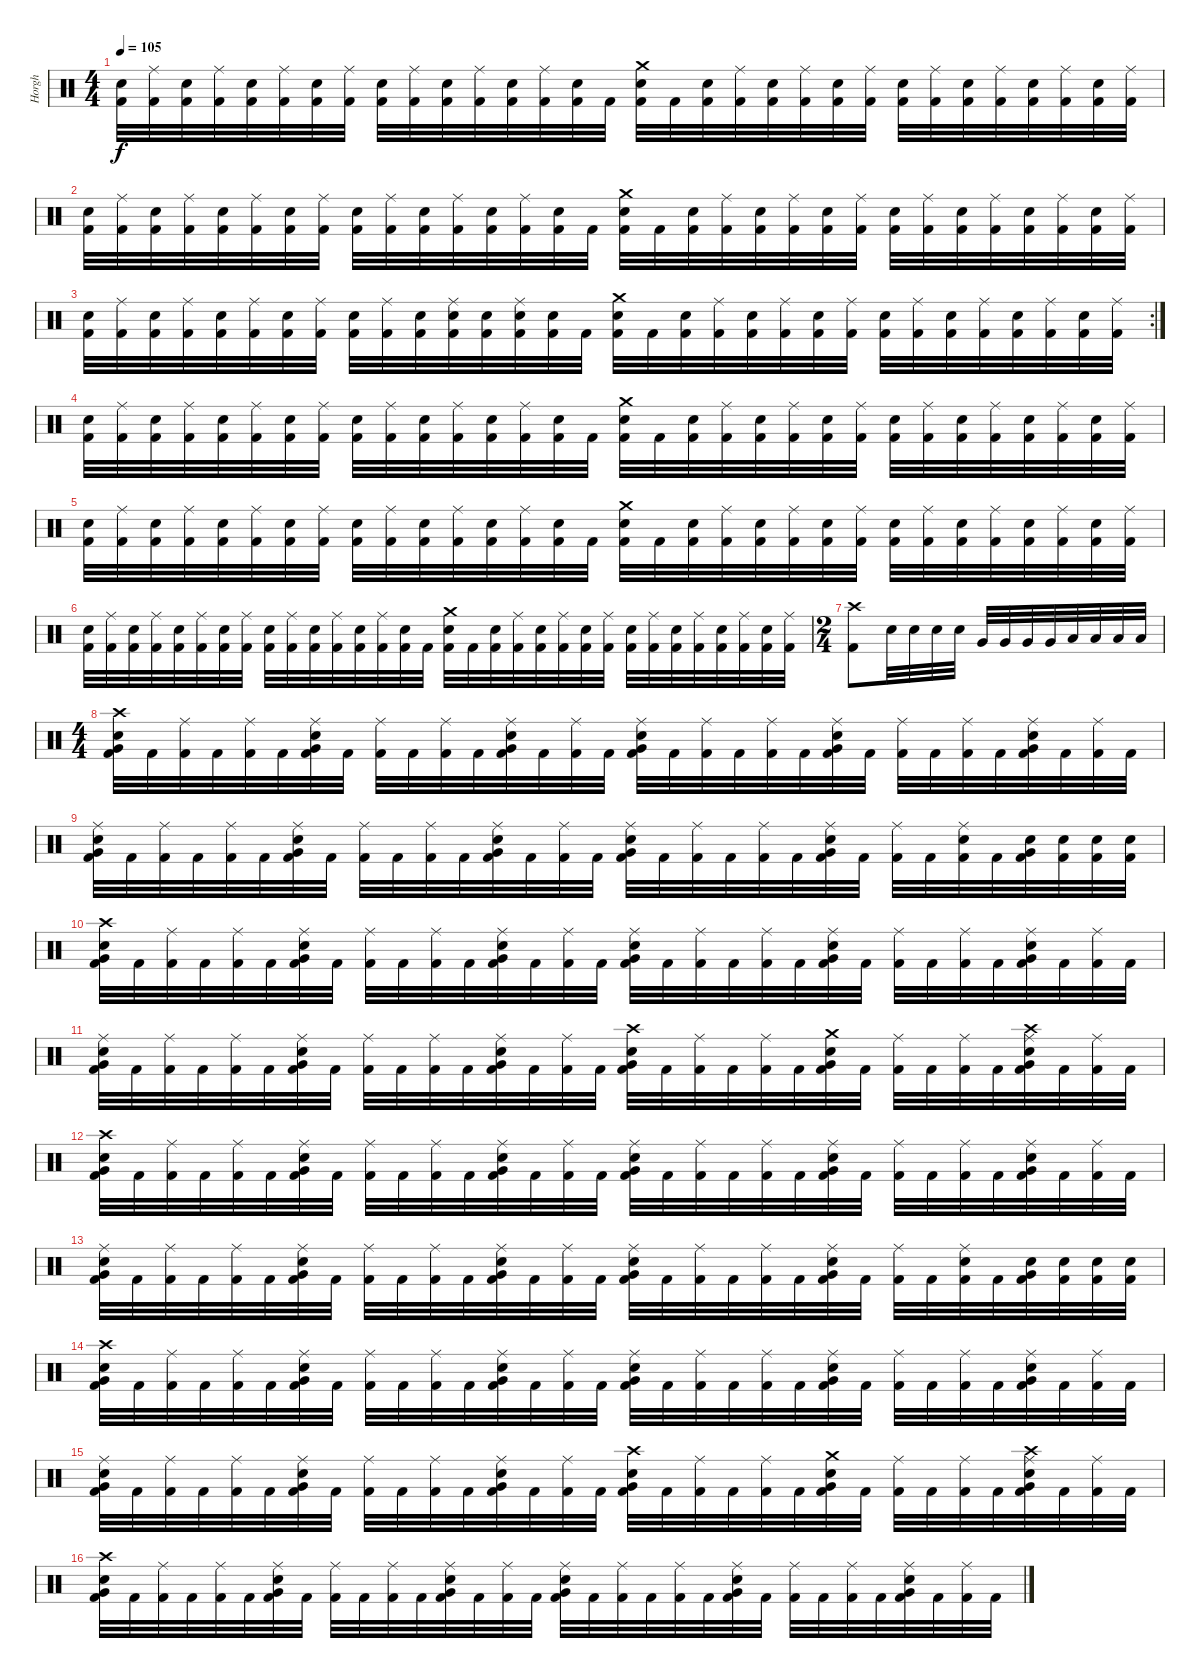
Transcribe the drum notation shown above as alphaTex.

\track ("Horgh" "Horgh") {instrument percussion}
\staff {score}
\articulation defaults
\ts (4 4)
\tempo 105
\clef neutral
\ks c
("Electric Snare (hit)" "Kick (hit) 2").32{dy f} ("Ride (middle)" "Kick (hit) 2").32 ("Electric Snare (hit)" "Kick (hit) 2").32 ("Ride (middle)" "Kick (hit) 2").32 ("Electric Snare (hit)" "Kick (hit) 2").32 ("Ride (middle)" "Kick (hit) 2").32 ("Electric Snare (hit)" "Kick (hit) 2").32 ("Ride (middle)" "Kick (hit) 2").32 ("Electric Snare (hit)" "Kick (hit) 2").32 ("Ride (middle)" "Kick (hit) 2").32 ("Electric Snare (hit)" "Kick (hit) 2").32 ("Ride (middle)" "Kick (hit) 2").32 ("Electric Snare (hit)" "Kick (hit) 2").32 ("Ride (middle)" "Kick (hit) 2").32 ("Electric Snare (hit)" "Kick (hit) 2").32 "Kick (hit) 2".32 ("Crash medium (hit)" "Electric Snare (hit)" "Kick (hit) 2").32 "Kick (hit) 2".32 ("Electric Snare (hit)" "Kick (hit) 2").32 ("Ride (middle)" "Kick (hit) 2").32 ("Electric Snare (hit)" "Kick (hit) 2").32 ("Ride (middle)" "Kick (hit) 2").32 ("Electric Snare (hit)" "Kick (hit) 2").32 ("Ride (middle)" "Kick (hit) 2").32 ("Electric Snare (hit)" "Kick (hit) 2").32 ("Ride (middle)" "Kick (hit) 2").32 ("Electric Snare (hit)" "Kick (hit) 2").32 ("Ride (middle)" "Kick (hit) 2").32 ("Electric Snare (hit)" "Kick (hit) 2").32 ("Ride (middle)" "Kick (hit) 2").32 ("Electric Snare (hit)" "Kick (hit) 2").32 ("Ride (middle)" "Kick (hit) 2").32 |
("Electric Snare (hit)" "Kick (hit) 2").32 ("Ride (middle)" "Kick (hit) 2").32 ("Electric Snare (hit)" "Kick (hit) 2").32 ("Ride (middle)" "Kick (hit) 2").32 ("Electric Snare (hit)" "Kick (hit) 2").32 ("Ride (middle)" "Kick (hit) 2").32 ("Electric Snare (hit)" "Kick (hit) 2").32 ("Ride (middle)" "Kick (hit) 2").32 ("Electric Snare (hit)" "Kick (hit) 2").32 ("Ride (middle)" "Kick (hit) 2").32 ("Electric Snare (hit)" "Kick (hit) 2").32 ("Ride (middle)" "Kick (hit) 2").32 ("Electric Snare (hit)" "Kick (hit) 2").32 ("Ride (middle)" "Kick (hit) 2").32 ("Electric Snare (hit)" "Kick (hit) 2").32 "Kick (hit) 2".32 ("Crash medium (hit)" "Electric Snare (hit)" "Kick (hit) 2").32 "Kick (hit) 2".32 ("Electric Snare (hit)" "Kick (hit) 2").32 ("Ride (middle)" "Kick (hit) 2").32 ("Electric Snare (hit)" "Kick (hit) 2").32 ("Ride (middle)" "Kick (hit) 2").32 ("Electric Snare (hit)" "Kick (hit) 2").32 ("Ride (middle)" "Kick (hit) 2").32 ("Electric Snare (hit)" "Kick (hit) 2").32 ("Ride (middle)" "Kick (hit) 2").32 ("Electric Snare (hit)" "Kick (hit) 2").32 ("Ride (middle)" "Kick (hit) 2").32 ("Electric Snare (hit)" "Kick (hit) 2").32 ("Ride (middle)" "Kick (hit) 2").32 ("Electric Snare (hit)" "Kick (hit) 2").32 ("Ride (middle)" "Kick (hit) 2").32 |
\rc 2
("Electric Snare (hit)" "Kick (hit) 2").32 ("Ride (middle)" "Kick (hit) 2").32 ("Electric Snare (hit)" "Kick (hit) 2").32 ("Ride (middle)" "Kick (hit) 2").32 ("Electric Snare (hit)" "Kick (hit) 2").32 ("Ride (middle)" "Kick (hit) 2").32 ("Electric Snare (hit)" "Kick (hit) 2").32 ("Ride (middle)" "Kick (hit) 2").32 ("Electric Snare (hit)" "Kick (hit) 2").32 ("Ride (middle)" "Kick (hit) 2").32 ("Electric Snare (hit)" "Kick (hit) 2").32 ("Ride (middle)" "Electric Snare (hit)" "Kick (hit) 2").32 ("Electric Snare (hit)" "Kick (hit) 2").32 ("Ride (middle)" "Electric Snare (hit)" "Kick (hit) 2").32 ("Electric Snare (hit)" "Kick (hit) 2").32 "Kick (hit) 2".32 ("Crash medium (hit)" "Electric Snare (hit)" "Kick (hit) 2").32 "Kick (hit) 2".32 ("Electric Snare (hit)" "Kick (hit) 2").32 ("Ride (middle)" "Kick (hit) 2").32 ("Electric Snare (hit)" "Kick (hit) 2").32 ("Ride (middle)" "Kick (hit) 2").32 ("Electric Snare (hit)" "Kick (hit) 2").32 ("Ride (middle)" "Kick (hit) 2").32 ("Electric Snare (hit)" "Kick (hit) 2").32 ("Ride (middle)" "Kick (hit) 2").32 ("Electric Snare (hit)" "Kick (hit) 2").32 ("Ride (middle)" "Kick (hit) 2").32 ("Electric Snare (hit)" "Kick (hit) 2").32 ("Ride (middle)" "Kick (hit) 2").32 ("Electric Snare (hit)" "Kick (hit) 2").32 ("Ride (middle)" "Kick (hit) 2").32 |
("Electric Snare (hit)" "Kick (hit) 2").32 ("Ride (middle)" "Kick (hit) 2").32 ("Electric Snare (hit)" "Kick (hit) 2").32 ("Ride (middle)" "Kick (hit) 2").32 ("Electric Snare (hit)" "Kick (hit) 2").32 ("Ride (middle)" "Kick (hit) 2").32 ("Electric Snare (hit)" "Kick (hit) 2").32 ("Ride (middle)" "Kick (hit) 2").32 ("Electric Snare (hit)" "Kick (hit) 2").32 ("Ride (middle)" "Kick (hit) 2").32 ("Electric Snare (hit)" "Kick (hit) 2").32 ("Ride (middle)" "Kick (hit) 2").32 ("Electric Snare (hit)" "Kick (hit) 2").32 ("Ride (middle)" "Kick (hit) 2").32 ("Electric Snare (hit)" "Kick (hit) 2").32 "Kick (hit) 2".32 ("Crash medium (hit)" "Electric Snare (hit)" "Kick (hit) 2").32 "Kick (hit) 2".32 ("Electric Snare (hit)" "Kick (hit) 2").32 ("Ride (middle)" "Kick (hit) 2").32 ("Electric Snare (hit)" "Kick (hit) 2").32 ("Ride (middle)" "Kick (hit) 2").32 ("Electric Snare (hit)" "Kick (hit) 2").32 ("Ride (middle)" "Kick (hit) 2").32 ("Electric Snare (hit)" "Kick (hit) 2").32 ("Ride (middle)" "Kick (hit) 2").32 ("Electric Snare (hit)" "Kick (hit) 2").32 ("Ride (middle)" "Kick (hit) 2").32 ("Electric Snare (hit)" "Kick (hit) 2").32 ("Ride (middle)" "Kick (hit) 2").32 ("Electric Snare (hit)" "Kick (hit) 2").32 ("Ride (middle)" "Kick (hit) 2").32 |
("Electric Snare (hit)" "Kick (hit) 2").32 ("Ride (middle)" "Kick (hit) 2").32 ("Electric Snare (hit)" "Kick (hit) 2").32 ("Ride (middle)" "Kick (hit) 2").32 ("Electric Snare (hit)" "Kick (hit) 2").32 ("Ride (middle)" "Kick (hit) 2").32 ("Electric Snare (hit)" "Kick (hit) 2").32 ("Ride (middle)" "Kick (hit) 2").32 ("Electric Snare (hit)" "Kick (hit) 2").32 ("Ride (middle)" "Kick (hit) 2").32 ("Electric Snare (hit)" "Kick (hit) 2").32 ("Ride (middle)" "Kick (hit) 2").32 ("Electric Snare (hit)" "Kick (hit) 2").32 ("Ride (middle)" "Kick (hit) 2").32 ("Electric Snare (hit)" "Kick (hit) 2").32 "Kick (hit) 2".32 ("Crash medium (hit)" "Electric Snare (hit)" "Kick (hit) 2").32 "Kick (hit) 2".32 ("Electric Snare (hit)" "Kick (hit) 2").32 ("Ride (middle)" "Kick (hit) 2").32 ("Electric Snare (hit)" "Kick (hit) 2").32 ("Ride (middle)" "Kick (hit) 2").32 ("Electric Snare (hit)" "Kick (hit) 2").32 ("Ride (middle)" "Kick (hit) 2").32 ("Electric Snare (hit)" "Kick (hit) 2").32 ("Ride (middle)" "Kick (hit) 2").32 ("Electric Snare (hit)" "Kick (hit) 2").32 ("Ride (middle)" "Kick (hit) 2").32 ("Electric Snare (hit)" "Kick (hit) 2").32 ("Ride (middle)" "Kick (hit) 2").32 ("Electric Snare (hit)" "Kick (hit) 2").32 ("Ride (middle)" "Kick (hit) 2").32 |
("Electric Snare (hit)" "Kick (hit) 2").32 ("Ride (middle)" "Kick (hit) 2").32 ("Electric Snare (hit)" "Kick (hit) 2").32 ("Ride (middle)" "Kick (hit) 2").32 ("Electric Snare (hit)" "Kick (hit) 2").32 ("Ride (middle)" "Kick (hit) 2").32 ("Electric Snare (hit)" "Kick (hit) 2").32 ("Ride (middle)" "Kick (hit) 2").32 ("Electric Snare (hit)" "Kick (hit) 2").32 ("Ride (middle)" "Kick (hit) 2").32 ("Electric Snare (hit)" "Kick (hit) 2").32 ("Ride (middle)" "Kick (hit) 2").32 ("Electric Snare (hit)" "Kick (hit) 2").32 ("Ride (middle)" "Kick (hit) 2").32 ("Electric Snare (hit)" "Kick (hit) 2").32 "Kick (hit) 2".32 ("Crash medium (hit)" "Electric Snare (hit)" "Kick (hit) 2").32 "Kick (hit) 2".32 ("Electric Snare (hit)" "Kick (hit) 2").32 ("Ride (middle)" "Kick (hit) 2").32 ("Electric Snare (hit)" "Kick (hit) 2").32 ("Ride (middle)" "Kick (hit) 2").32 ("Electric Snare (hit)" "Kick (hit) 2").32 ("Ride (middle)" "Kick (hit) 2").32 ("Electric Snare (hit)" "Kick (hit) 2").32 ("Ride (middle)" "Kick (hit) 2").32 ("Electric Snare (hit)" "Kick (hit) 2").32 ("Ride (middle)" "Kick (hit) 2").32 ("Electric Snare (hit)" "Kick (hit) 2").32 ("Ride (middle)" "Kick (hit) 2").32 ("Electric Snare (hit)" "Kick (hit) 2").32 ("Ride (middle)" "Kick (hit) 2").32 |
\ts (2 4)
("Crash high (hit)" "Kick (hit) 2").8 "Electric Snare (hit)".32 "Electric Snare (hit)".32 "Electric Snare (hit)".32 "Electric Snare (hit)".32 "Very Low Tom (hit)".32 "Very Low Tom (hit)".32 "Very Low Tom (hit)".32 "Very Low Tom (hit)".32 "Low Tom (hit)".32 "Low Tom (hit)".32 "Low Tom (hit)".32 "Low Tom (hit)".32 |
\ts (4 4)
("Crash high (hit)" "Electric Snare (hit)" "Very Low Tom (hit)" "Kick (hit) 2").32 "Kick (hit) 2".32 ("Ride (middle)" "Kick (hit) 2").32 "Kick (hit) 2".32 ("Ride (middle)" "Kick (hit) 2").32 "Kick (hit) 2".32 ("Ride (middle)" "Electric Snare (hit)" "Very Low Tom (hit)" "Kick (hit) 2").32 "Kick (hit) 2".32 ("Ride (middle)" "Kick (hit) 2").32 "Kick (hit) 2".32 ("Ride (middle)" "Kick (hit) 2").32 "Kick (hit) 2".32 ("Ride (middle)" "Electric Snare (hit)" "Very Low Tom (hit)" "Kick (hit) 2").32 "Kick (hit) 2".32 ("Ride (middle)" "Kick (hit) 2").32 "Kick (hit) 2".32 ("Ride (middle)" "Electric Snare (hit)" "Very Low Tom (hit)" "Kick (hit) 2").32 "Kick (hit) 2".32 ("Ride (middle)" "Kick (hit) 2").32 "Kick (hit) 2".32 ("Ride (middle)" "Kick (hit) 2").32 "Kick (hit) 2".32 ("Ride (middle)" "Electric Snare (hit)" "Very Low Tom (hit)" "Kick (hit) 2").32 "Kick (hit) 2".32 ("Ride (middle)" "Kick (hit) 2").32 "Kick (hit) 2".32 ("Ride (middle)" "Kick (hit) 2").32 "Kick (hit) 2".32 ("Ride (middle)" "Electric Snare (hit)" "Very Low Tom (hit)" "Kick (hit) 2").32 "Kick (hit) 2".32 ("Ride (middle)" "Kick (hit) 2").32 "Kick (hit) 2".32 |
("Ride (middle)" "Electric Snare (hit)" "Very Low Tom (hit)" "Kick (hit) 2").32 "Kick (hit) 2".32 ("Ride (middle)" "Kick (hit) 2").32 "Kick (hit) 2".32 ("Ride (middle)" "Kick (hit) 2").32 "Kick (hit) 2".32 ("Ride (middle)" "Electric Snare (hit)" "Very Low Tom (hit)" "Kick (hit) 2").32 "Kick (hit) 2".32 ("Ride (middle)" "Kick (hit) 2").32 "Kick (hit) 2".32 ("Ride (middle)" "Kick (hit) 2").32 "Kick (hit) 2".32 ("Ride (middle)" "Electric Snare (hit)" "Very Low Tom (hit)" "Kick (hit) 2").32 "Kick (hit) 2".32 ("Ride (middle)" "Kick (hit) 2").32 "Kick (hit) 2".32 ("Ride (middle)" "Electric Snare (hit)" "Very Low Tom (hit)" "Kick (hit) 2").32 "Kick (hit) 2".32 ("Ride (middle)" "Kick (hit) 2").32 "Kick (hit) 2".32 ("Ride (middle)" "Kick (hit) 2").32 "Kick (hit) 2".32 ("Ride (middle)" "Electric Snare (hit)" "Very Low Tom (hit)" "Kick (hit) 2").32 "Kick (hit) 2".32 ("Ride (middle)" "Kick (hit) 2").32 "Kick (hit) 2".32 ("Ride (middle)" "Electric Snare (hit)" "Kick (hit) 2").32 "Kick (hit) 2".32 ("Electric Snare (hit)" "Very Low Tom (hit)" "Kick (hit) 2").32 ("Electric Snare (hit)" "Kick (hit) 2").32 ("Electric Snare (hit)" "Kick (hit) 2").32 ("Electric Snare (hit)" "Kick (hit) 2").32 |
("Crash high (hit)" "Electric Snare (hit)" "Very Low Tom (hit)" "Kick (hit) 2").32 "Kick (hit) 2".32 ("Ride (middle)" "Kick (hit) 2").32 "Kick (hit) 2".32 ("Ride (middle)" "Kick (hit) 2").32 "Kick (hit) 2".32 ("Ride (middle)" "Electric Snare (hit)" "Very Low Tom (hit)" "Kick (hit) 2").32 "Kick (hit) 2".32 ("Ride (middle)" "Kick (hit) 2").32 "Kick (hit) 2".32 ("Ride (middle)" "Kick (hit) 2").32 "Kick (hit) 2".32 ("Ride (middle)" "Electric Snare (hit)" "Very Low Tom (hit)" "Kick (hit) 2").32 "Kick (hit) 2".32 ("Ride (middle)" "Kick (hit) 2").32 "Kick (hit) 2".32 ("Ride (middle)" "Electric Snare (hit)" "Very Low Tom (hit)" "Kick (hit) 2").32 "Kick (hit) 2".32 ("Ride (middle)" "Kick (hit) 2").32 "Kick (hit) 2".32 ("Ride (middle)" "Kick (hit) 2").32 "Kick (hit) 2".32 ("Ride (middle)" "Electric Snare (hit)" "Very Low Tom (hit)" "Kick (hit) 2").32 "Kick (hit) 2".32 ("Ride (middle)" "Kick (hit) 2").32 "Kick (hit) 2".32 ("Ride (middle)" "Kick (hit) 2").32 "Kick (hit) 2".32 ("Ride (middle)" "Electric Snare (hit)" "Very Low Tom (hit)" "Kick (hit) 2").32 "Kick (hit) 2".32 ("Ride (middle)" "Kick (hit) 2").32 "Kick (hit) 2".32 |
("Ride (middle)" "Electric Snare (hit)" "Very Low Tom (hit)" "Kick (hit) 2").32 "Kick (hit) 2".32 ("Ride (middle)" "Kick (hit) 2").32 "Kick (hit) 2".32 ("Ride (middle)" "Kick (hit) 2").32 "Kick (hit) 2".32 ("Ride (middle)" "Electric Snare (hit)" "Very Low Tom (hit)" "Kick (hit) 2").32 "Kick (hit) 2".32 ("Ride (middle)" "Kick (hit) 2").32 "Kick (hit) 2".32 ("Ride (middle)" "Kick (hit) 2").32 "Kick (hit) 2".32 ("Ride (middle)" "Electric Snare (hit)" "Very Low Tom (hit)" "Kick (hit) 2").32 "Kick (hit) 2".32 ("Ride (middle)" "Kick (hit) 2").32 "Kick (hit) 2".32 ("Crash high (hit)" "Electric Snare (hit)" "Very Low Tom (hit)" "Kick (hit) 2").32 "Kick (hit) 2".32 ("Ride (middle)" "Kick (hit) 2").32 "Kick (hit) 2".32 ("Ride (middle)" "Kick (hit) 2").32 "Kick (hit) 2".32 ("Crash medium (hit)" "Electric Snare (hit)" "Very Low Tom (hit)" "Kick (hit) 2").32 "Kick (hit) 2".32 ("Ride (middle)" "Kick (hit) 2").32 "Kick (hit) 2".32 ("Ride (middle)" "Kick (hit) 2").32 "Kick (hit) 2".32 ("Crash high (hit)" "Ride (middle)" "Electric Snare (hit)" "Very Low Tom (hit)" "Kick (hit) 2").32 "Kick (hit) 2".32 ("Ride (middle)" "Kick (hit) 2").32 "Kick (hit) 2".32 |
("Crash high (hit)" "Electric Snare (hit)" "Very Low Tom (hit)" "Kick (hit) 2").32 "Kick (hit) 2".32 ("Ride (middle)" "Kick (hit) 2").32 "Kick (hit) 2".32 ("Ride (middle)" "Kick (hit) 2").32 "Kick (hit) 2".32 ("Ride (middle)" "Electric Snare (hit)" "Very Low Tom (hit)" "Kick (hit) 2").32 "Kick (hit) 2".32 ("Ride (middle)" "Kick (hit) 2").32 "Kick (hit) 2".32 ("Ride (middle)" "Kick (hit) 2").32 "Kick (hit) 2".32 ("Ride (middle)" "Electric Snare (hit)" "Very Low Tom (hit)" "Kick (hit) 2").32 "Kick (hit) 2".32 ("Ride (middle)" "Kick (hit) 2").32 "Kick (hit) 2".32 ("Ride (middle)" "Electric Snare (hit)" "Very Low Tom (hit)" "Kick (hit) 2").32 "Kick (hit) 2".32 ("Ride (middle)" "Kick (hit) 2").32 "Kick (hit) 2".32 ("Ride (middle)" "Kick (hit) 2").32 "Kick (hit) 2".32 ("Ride (middle)" "Electric Snare (hit)" "Very Low Tom (hit)" "Kick (hit) 2").32 "Kick (hit) 2".32 ("Ride (middle)" "Kick (hit) 2").32 "Kick (hit) 2".32 ("Ride (middle)" "Kick (hit) 2").32 "Kick (hit) 2".32 ("Ride (middle)" "Electric Snare (hit)" "Very Low Tom (hit)" "Kick (hit) 2").32 "Kick (hit) 2".32 ("Ride (middle)" "Kick (hit) 2").32 "Kick (hit) 2".32 |
("Ride (middle)" "Electric Snare (hit)" "Very Low Tom (hit)" "Kick (hit) 2").32 "Kick (hit) 2".32 ("Ride (middle)" "Kick (hit) 2").32 "Kick (hit) 2".32 ("Ride (middle)" "Kick (hit) 2").32 "Kick (hit) 2".32 ("Ride (middle)" "Electric Snare (hit)" "Very Low Tom (hit)" "Kick (hit) 2").32 "Kick (hit) 2".32 ("Ride (middle)" "Kick (hit) 2").32 "Kick (hit) 2".32 ("Ride (middle)" "Kick (hit) 2").32 "Kick (hit) 2".32 ("Ride (middle)" "Electric Snare (hit)" "Very Low Tom (hit)" "Kick (hit) 2").32 "Kick (hit) 2".32 ("Ride (middle)" "Kick (hit) 2").32 "Kick (hit) 2".32 ("Ride (middle)" "Electric Snare (hit)" "Very Low Tom (hit)" "Kick (hit) 2").32 "Kick (hit) 2".32 ("Ride (middle)" "Kick (hit) 2").32 "Kick (hit) 2".32 ("Ride (middle)" "Kick (hit) 2").32 "Kick (hit) 2".32 ("Ride (middle)" "Electric Snare (hit)" "Very Low Tom (hit)" "Kick (hit) 2").32 "Kick (hit) 2".32 ("Ride (middle)" "Kick (hit) 2").32 "Kick (hit) 2".32 ("Ride (middle)" "Electric Snare (hit)" "Kick (hit) 2").32 "Kick (hit) 2".32 ("Electric Snare (hit)" "Very Low Tom (hit)" "Kick (hit) 2").32 ("Electric Snare (hit)" "Kick (hit) 2").32 ("Electric Snare (hit)" "Kick (hit) 2").32 ("Electric Snare (hit)" "Kick (hit) 2").32 |
("Crash high (hit)" "Electric Snare (hit)" "Very Low Tom (hit)" "Kick (hit) 2").32 "Kick (hit) 2".32 ("Ride (middle)" "Kick (hit) 2").32 "Kick (hit) 2".32 ("Ride (middle)" "Kick (hit) 2").32 "Kick (hit) 2".32 ("Ride (middle)" "Electric Snare (hit)" "Very Low Tom (hit)" "Kick (hit) 2").32 "Kick (hit) 2".32 ("Ride (middle)" "Kick (hit) 2").32 "Kick (hit) 2".32 ("Ride (middle)" "Kick (hit) 2").32 "Kick (hit) 2".32 ("Ride (middle)" "Electric Snare (hit)" "Very Low Tom (hit)" "Kick (hit) 2").32 "Kick (hit) 2".32 ("Ride (middle)" "Kick (hit) 2").32 "Kick (hit) 2".32 ("Ride (middle)" "Electric Snare (hit)" "Very Low Tom (hit)" "Kick (hit) 2").32 "Kick (hit) 2".32 ("Ride (middle)" "Kick (hit) 2").32 "Kick (hit) 2".32 ("Ride (middle)" "Kick (hit) 2").32 "Kick (hit) 2".32 ("Ride (middle)" "Electric Snare (hit)" "Very Low Tom (hit)" "Kick (hit) 2").32 "Kick (hit) 2".32 ("Ride (middle)" "Kick (hit) 2").32 "Kick (hit) 2".32 ("Ride (middle)" "Kick (hit) 2").32 "Kick (hit) 2".32 ("Ride (middle)" "Electric Snare (hit)" "Very Low Tom (hit)" "Kick (hit) 2").32 "Kick (hit) 2".32 ("Ride (middle)" "Kick (hit) 2").32 "Kick (hit) 2".32 |
("Ride (middle)" "Electric Snare (hit)" "Very Low Tom (hit)" "Kick (hit) 2").32 "Kick (hit) 2".32 ("Ride (middle)" "Kick (hit) 2").32 "Kick (hit) 2".32 ("Ride (middle)" "Kick (hit) 2").32 "Kick (hit) 2".32 ("Ride (middle)" "Electric Snare (hit)" "Very Low Tom (hit)" "Kick (hit) 2").32 "Kick (hit) 2".32 ("Ride (middle)" "Kick (hit) 2").32 "Kick (hit) 2".32 ("Ride (middle)" "Kick (hit) 2").32 "Kick (hit) 2".32 ("Ride (middle)" "Electric Snare (hit)" "Very Low Tom (hit)" "Kick (hit) 2").32 "Kick (hit) 2".32 ("Ride (middle)" "Kick (hit) 2").32 "Kick (hit) 2".32 ("Crash high (hit)" "Electric Snare (hit)" "Very Low Tom (hit)" "Kick (hit) 2").32 "Kick (hit) 2".32 ("Ride (middle)" "Kick (hit) 2").32 "Kick (hit) 2".32 ("Ride (middle)" "Kick (hit) 2").32 "Kick (hit) 2".32 ("Crash medium (hit)" "Electric Snare (hit)" "Very Low Tom (hit)" "Kick (hit) 2").32 "Kick (hit) 2".32 ("Ride (middle)" "Kick (hit) 2").32 "Kick (hit) 2".32 ("Ride (middle)" "Kick (hit) 2").32 "Kick (hit) 2".32 ("Crash high (hit)" "Ride (middle)" "Electric Snare (hit)" "Very Low Tom (hit)" "Kick (hit) 2").32 "Kick (hit) 2".32 ("Ride (middle)" "Kick (hit) 2").32 "Kick (hit) 2".32 |
("Crash high (hit)" "Electric Snare (hit)" "Very Low Tom (hit)" "Kick (hit) 2").32 "Kick (hit) 2".32 ("Ride (middle)" "Kick (hit) 2").32 "Kick (hit) 2".32 ("Ride (middle)" "Kick (hit) 2").32 "Kick (hit) 2".32 ("Ride (middle)" "Electric Snare (hit)" "Very Low Tom (hit)" "Kick (hit) 2").32 "Kick (hit) 2".32 ("Ride (middle)" "Kick (hit) 2").32 "Kick (hit) 2".32 ("Ride (middle)" "Kick (hit) 2").32 "Kick (hit) 2".32 ("Ride (middle)" "Electric Snare (hit)" "Very Low Tom (hit)" "Kick (hit) 2").32 "Kick (hit) 2".32 ("Ride (middle)" "Kick (hit) 2").32 "Kick (hit) 2".32 ("Ride (middle)" "Electric Snare (hit)" "Very Low Tom (hit)" "Kick (hit) 2").32 "Kick (hit) 2".32 ("Ride (middle)" "Kick (hit) 2").32 "Kick (hit) 2".32 ("Ride (middle)" "Kick (hit) 2").32 "Kick (hit) 2".32 ("Ride (middle)" "Electric Snare (hit)" "Very Low Tom (hit)" "Kick (hit) 2").32 "Kick (hit) 2".32 ("Ride (middle)" "Kick (hit) 2").32 "Kick (hit) 2".32 ("Ride (middle)" "Kick (hit) 2").32 "Kick (hit) 2".32 ("Ride (middle)" "Electric Snare (hit)" "Very Low Tom (hit)" "Kick (hit) 2").32 "Kick (hit) 2".32 ("Ride (middle)" "Kick (hit) 2").32 "Kick (hit) 2".32
